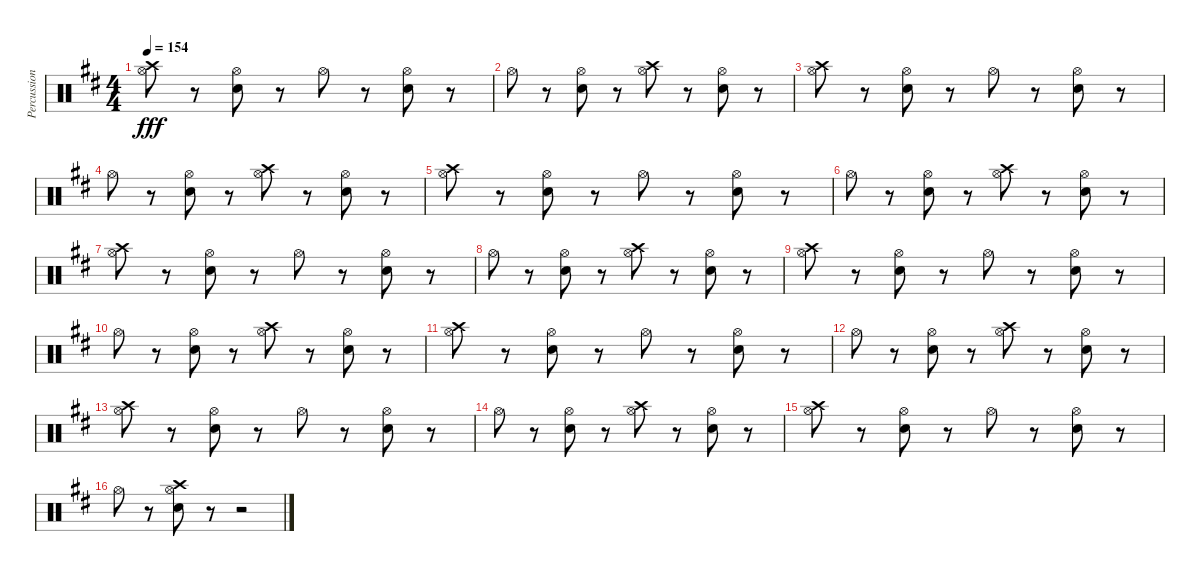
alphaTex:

\track ("Percussion (Mike Felumlee" "Percussion") {instrument percussion}
\staff {score}
\articulation defaults
\ts (4 4)
\tempo 154
\clef neutral
\ks bminor
("Hi-Hat (open)" "Crash high (hit)").8{dy fff} r.8 ("Hi-Hat (open)" "Electric Snare (hit)").8 r.8 "Hi-Hat (open)".8 r.8 ("Hi-Hat (open)" "Electric Snare (hit)").8 r.8 |
"Hi-Hat (open)".8 r.8 ("Hi-Hat (open)" "Electric Snare (hit)").8 r.8 ("Hi-Hat (open)" "Crash high (hit)").8 r.8 ("Hi-Hat (open)" "Electric Snare (hit)").8 r.8 |
("Hi-Hat (open)" "Crash high (hit)").8 r.8 ("Hi-Hat (open)" "Electric Snare (hit)").8 r.8 "Hi-Hat (open)".8 r.8 ("Hi-Hat (open)" "Electric Snare (hit)").8 r.8 |
"Hi-Hat (open)".8 r.8 ("Hi-Hat (open)" "Electric Snare (hit)").8 r.8 ("Hi-Hat (open)" "Crash high (hit)").8 r.8 ("Hi-Hat (open)" "Electric Snare (hit)").8 r.8 |
("Hi-Hat (open)" "Crash high (hit)").8 r.8 ("Hi-Hat (open)" "Electric Snare (hit)").8 r.8 "Hi-Hat (open)".8 r.8 ("Hi-Hat (open)" "Electric Snare (hit)").8 r.8 |
"Hi-Hat (open)".8 r.8 ("Hi-Hat (open)" "Electric Snare (hit)").8 r.8 ("Hi-Hat (open)" "Crash high (hit)").8 r.8 ("Hi-Hat (open)" "Electric Snare (hit)").8 r.8 |
("Hi-Hat (open)" "Crash high (hit)").8 r.8 ("Hi-Hat (open)" "Electric Snare (hit)").8 r.8 "Hi-Hat (open)".8 r.8 ("Hi-Hat (open)" "Electric Snare (hit)").8 r.8 |
"Hi-Hat (open)".8 r.8 ("Hi-Hat (open)" "Electric Snare (hit)").8 r.8 ("Hi-Hat (open)" "Crash high (hit)").8 r.8 ("Hi-Hat (open)" "Electric Snare (hit)").8 r.8 |
("Hi-Hat (open)" "Crash high (hit)").8 r.8 ("Hi-Hat (open)" "Electric Snare (hit)").8 r.8 "Hi-Hat (open)".8 r.8 ("Hi-Hat (open)" "Electric Snare (hit)").8 r.8 |
"Hi-Hat (open)".8 r.8 ("Hi-Hat (open)" "Electric Snare (hit)").8 r.8 ("Hi-Hat (open)" "Crash high (hit)").8 r.8 ("Hi-Hat (open)" "Electric Snare (hit)").8 r.8 |
("Hi-Hat (open)" "Crash high (hit)").8 r.8 ("Hi-Hat (open)" "Electric Snare (hit)").8 r.8 "Hi-Hat (open)".8 r.8 ("Hi-Hat (open)" "Electric Snare (hit)").8 r.8 |
"Hi-Hat (open)".8 r.8 ("Hi-Hat (open)" "Electric Snare (hit)").8 r.8 ("Hi-Hat (open)" "Crash high (hit)").8 r.8 ("Hi-Hat (open)" "Electric Snare (hit)").8 r.8 |
("Hi-Hat (open)" "Crash high (hit)").8 r.8 ("Hi-Hat (open)" "Electric Snare (hit)").8 r.8 "Hi-Hat (open)".8 r.8 ("Hi-Hat (open)" "Electric Snare (hit)").8 r.8 |
"Hi-Hat (open)".8 r.8 ("Hi-Hat (open)" "Electric Snare (hit)").8 r.8 ("Hi-Hat (open)" "Crash high (hit)").8 r.8 ("Hi-Hat (open)" "Electric Snare (hit)").8 r.8 |
("Hi-Hat (open)" "Crash high (hit)").8 r.8 ("Hi-Hat (open)" "Electric Snare (hit)").8 r.8 "Hi-Hat (open)".8 r.8 ("Hi-Hat (open)" "Electric Snare (hit)").8 r.8 |
"Hi-Hat (open)".8 r.8 ("Hi-Hat (open)" "Electric Snare (hit)" "Crash high (hit)").8 r.8 r.2
